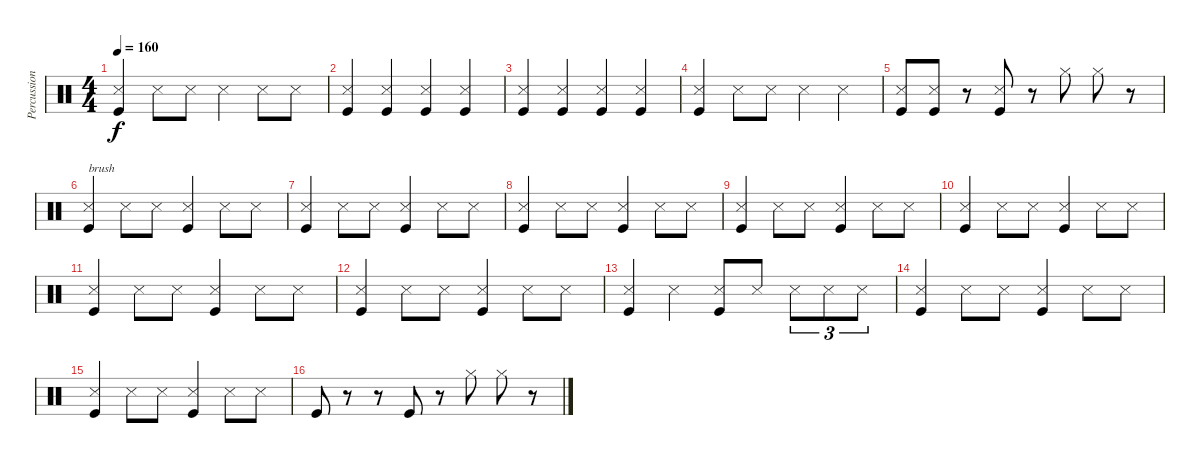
\track ("Percussion" "Percussion") {instrument percussion}
\staff {score}
\articulation defaults
\ts (4 4)
\tempo 160
\clef neutral
\ks c
("Snare (side stick) 3" "Kick (hit)").4{dy f} "Snare (side stick) 3".8 "Snare (side stick) 3".8 "Snare (side stick) 3".4 "Snare (side stick) 3".8 "Snare (side stick) 3".8 |
("Snare (side stick) 3" "Kick (hit)").4 ("Snare (side stick) 3" "Kick (hit)").4 ("Snare (side stick) 3" "Kick (hit)").4 ("Snare (side stick) 3" "Kick (hit)").4 |
("Snare (side stick) 3" "Kick (hit)").4 ("Snare (side stick) 3" "Kick (hit)").4 ("Snare (side stick) 3" "Kick (hit)").4 ("Snare (side stick) 3" "Kick (hit)").4 |
("Snare (side stick) 3" "Kick (hit)").4 "Snare (side stick) 3".8 "Snare (side stick) 3".8 "Snare (side stick) 3".4 "Snare (side stick) 3".4 |
("Snare (side stick) 3" "Kick (hit)").8 ("Snare (side stick) 3" "Kick (hit)").8 r.8 ("Snare (side stick) 3" "Kick (hit)").8 r.8 "Hi-Hat (closed)".8 "Hi-Hat (closed)".8 r.8 |
("Snare (side stick) 3" "Kick (hit)").4{txt "brush"} "Snare (side stick) 3".8 "Snare (side stick) 3".8 ("Snare (side stick) 3" "Kick (hit)").4 "Snare (side stick) 3".8 "Snare (side stick) 3".8 |
("Snare (side stick) 3" "Kick (hit)").4 "Snare (side stick) 3".8 "Snare (side stick) 3".8 ("Snare (side stick) 3" "Kick (hit)").4 "Snare (side stick) 3".8 "Snare (side stick) 3".8 |
("Snare (side stick) 3" "Kick (hit)").4 "Snare (side stick) 3".8 "Snare (side stick) 3".8 ("Snare (side stick) 3" "Kick (hit)").4 "Snare (side stick) 3".8 "Snare (side stick) 3".8 |
("Snare (side stick) 3" "Kick (hit)").4 "Snare (side stick) 3".8 "Snare (side stick) 3".8 ("Snare (side stick) 3" "Kick (hit)").4 "Snare (side stick) 3".8 "Snare (side stick) 3".8 |
("Snare (side stick) 3" "Kick (hit)").4 "Snare (side stick) 3".8 "Snare (side stick) 3".8 ("Snare (side stick) 3" "Kick (hit)").4 "Snare (side stick) 3".8 "Snare (side stick) 3".8 |
("Snare (side stick) 3" "Kick (hit)").4 "Snare (side stick) 3".8 "Snare (side stick) 3".8 ("Snare (side stick) 3" "Kick (hit)").4 "Snare (side stick) 3".8 "Snare (side stick) 3".8 |
("Snare (side stick) 3" "Kick (hit)").4 "Snare (side stick) 3".8 "Snare (side stick) 3".8 ("Snare (side stick) 3" "Kick (hit)").4 "Snare (side stick) 3".8 "Snare (side stick) 3".8 |
("Snare (side stick) 3" "Kick (hit)").4 "Snare (side stick) 3".4 ("Snare (side stick) 3" "Kick (hit)").8 "Snare (side stick) 3".8 "Snare (side stick) 3".8{tu (3 2)} "Snare (side stick) 3".8{tu (3 2)} "Snare (side stick) 3".8{tu (3 2)} |
("Snare (side stick) 3" "Kick (hit)").4 "Snare (side stick) 3".8 "Snare (side stick) 3".8 ("Snare (side stick) 3" "Kick (hit)").4 "Snare (side stick) 3".8 "Snare (side stick) 3".8 |
("Snare (side stick) 3" "Kick (hit)").4 "Snare (side stick) 3".8 "Snare (side stick) 3".8 ("Snare (side stick) 3" "Kick (hit)").4 "Snare (side stick) 3".8 "Snare (side stick) 3".8 |
"Kick (hit)".8 r.8 r.8 "Kick (hit)".8 r.8 "Hi-Hat (closed)".8 "Hi-Hat (closed)".8 r.8
